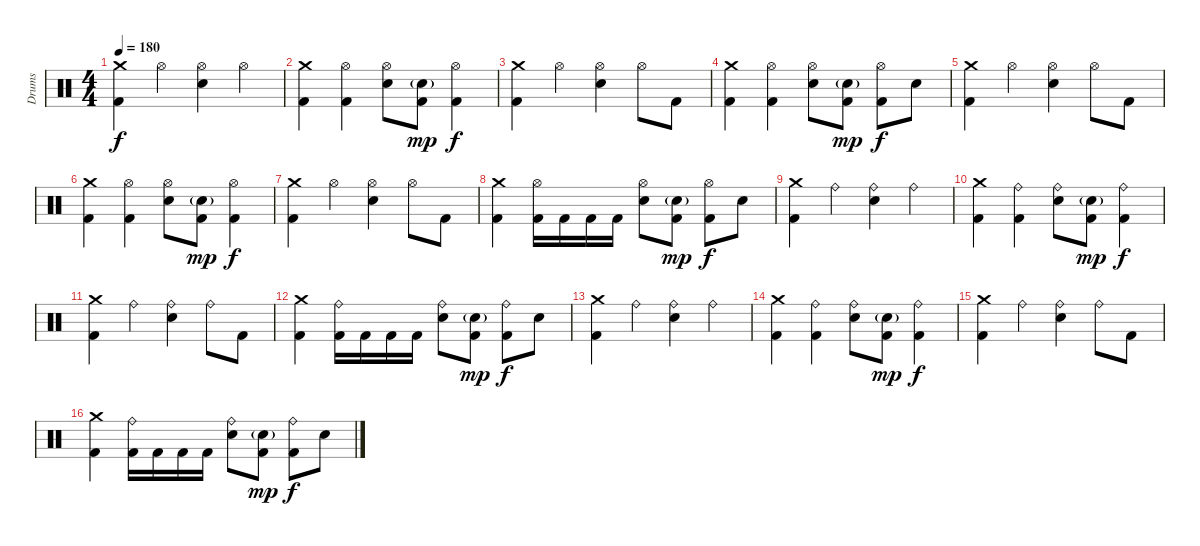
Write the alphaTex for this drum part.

\track ("Drums" "Drums") {instrument percussion}
\staff {score}
\articulation defaults
\ts (4 4)
\tempo 180
\clef neutral
\ks c
("Crash medium (hit)" "Kick (hit) 2").4{dy f} "Hi-Hat (open)".4 ("Hi-Hat (open)" "Electric Snare (hit)").4 "Hi-Hat (open)".4 |
("Crash medium (hit)" "Kick (hit) 2").4 ("Hi-Hat (open)" "Kick (hit) 2").4 ("Hi-Hat (open)" "Electric Snare (hit)").8 ("Electric Snare (hit)"{g} "Kick (hit) 2").8{dy mp} ("Hi-Hat (open)" "Kick (hit) 2").4{dy f} |
("Crash medium (hit)" "Kick (hit) 2").4 "Hi-Hat (open)".4 ("Hi-Hat (open)" "Electric Snare (hit)").4 "Hi-Hat (open)".8 "Kick (hit) 2".8 |
("Crash medium (hit)" "Kick (hit) 2").4 ("Hi-Hat (open)" "Kick (hit) 2").4 ("Hi-Hat (open)" "Electric Snare (hit)").8 ("Electric Snare (hit)"{g} "Kick (hit) 2").8{dy mp} ("Hi-Hat (open)" "Kick (hit) 2").8{dy f} "Electric Snare (hit)".8 |
("Crash medium (hit)" "Kick (hit) 2").4 "Hi-Hat (open)".4 ("Hi-Hat (open)" "Electric Snare (hit)").4 "Hi-Hat (open)".8 "Kick (hit) 2".8 |
("Crash medium (hit)" "Kick (hit) 2").4 ("Hi-Hat (open)" "Kick (hit) 2").4 ("Hi-Hat (open)" "Electric Snare (hit)").8 ("Electric Snare (hit)"{g} "Kick (hit) 2").8{dy mp} ("Hi-Hat (open)" "Kick (hit) 2").4{dy f} |
("Crash medium (hit)" "Kick (hit) 2").4 "Hi-Hat (open)".4 ("Hi-Hat (open)" "Electric Snare (hit)").4 "Hi-Hat (open)".8 "Kick (hit) 2".8 |
("Crash medium (hit)" "Kick (hit) 2").4 ("Hi-Hat (open)" "Kick (hit) 2").16 "Kick (hit) 2".16 "Kick (hit) 2".16 "Kick (hit) 2".16 ("Hi-Hat (open)" "Electric Snare (hit)").8 ("Electric Snare (hit)"{g} "Kick (hit) 2").8{dy mp} ("Hi-Hat (open)" "Kick (hit) 2").8{dy f} "Electric Snare (hit)".8 |
("Crash medium (hit)" "Kick (hit) 2").4 "Ride (bell)".4 ("Ride (bell)" "Electric Snare (hit)").4 "Ride (bell)".4 |
("Crash medium (hit)" "Kick (hit) 2").4 ("Ride (bell)" "Kick (hit) 2").4 ("Ride (bell)" "Electric Snare (hit)").8 ("Electric Snare (hit)"{g} "Kick (hit) 2").8{dy mp} ("Ride (bell)" "Kick (hit) 2").4{dy f} |
("Crash medium (hit)" "Kick (hit) 2").4 "Ride (bell)".4 ("Ride (bell)" "Electric Snare (hit)").4 "Ride (bell)".8 "Kick (hit) 2".8 |
("Crash medium (hit)" "Kick (hit) 2").4 ("Ride (bell)" "Kick (hit) 2").16 "Kick (hit) 2".16 "Kick (hit) 2".16 "Kick (hit) 2".16 ("Ride (bell)" "Electric Snare (hit)").8 ("Electric Snare (hit)"{g} "Kick (hit) 2").8{dy mp} ("Ride (bell)" "Kick (hit) 2").8{dy f} "Electric Snare (hit)".8 |
("Crash medium (hit)" "Kick (hit) 2").4 "Ride (bell)".4 ("Ride (bell)" "Electric Snare (hit)").4 "Ride (bell)".4 |
("Crash medium (hit)" "Kick (hit) 2").4 ("Ride (bell)" "Kick (hit) 2").4 ("Ride (bell)" "Electric Snare (hit)").8 ("Electric Snare (hit)"{g} "Kick (hit) 2").8{dy mp} ("Ride (bell)" "Kick (hit) 2").4{dy f} |
("Crash medium (hit)" "Kick (hit) 2").4 "Ride (bell)".4 ("Ride (bell)" "Electric Snare (hit)").4 "Ride (bell)".8 "Kick (hit) 2".8 |
("Crash medium (hit)" "Kick (hit) 2").4 ("Ride (bell)" "Kick (hit) 2").16 "Kick (hit) 2".16 "Kick (hit) 2".16 "Kick (hit) 2".16 ("Ride (bell)" "Electric Snare (hit)").8 ("Electric Snare (hit)"{g} "Kick (hit) 2").8{dy mp} ("Ride (bell)" "Kick (hit) 2").8{dy f} "Electric Snare (hit)".8
